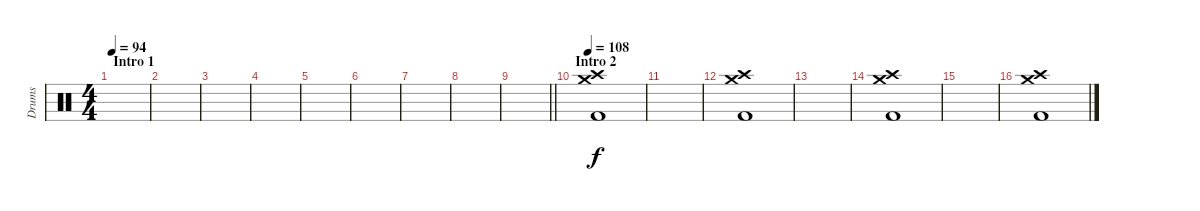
\track ("Drums" "Drums") {instrument percussion}
\staff {score}
\articulation defaults
\ts (4 4)
\section ("" "Intro 1")
\tempo 94
\clef neutral
\ks c
|
|
|
|
|
|
|
|
\barLineRight lightlight
|
\section ("" "Intro 2")
\tempo 108
("Crash medium (hit)" "Crash high (hit)" "Kick (hit) 2").1 |
|
("Crash medium (hit)" "Crash high (hit)" "Kick (hit) 2").1 |
|
("Crash medium (hit)" "Crash high (hit)" "Kick (hit) 2").1 |
|
("Crash medium (hit)" "Crash high (hit)" "Kick (hit) 2").1
